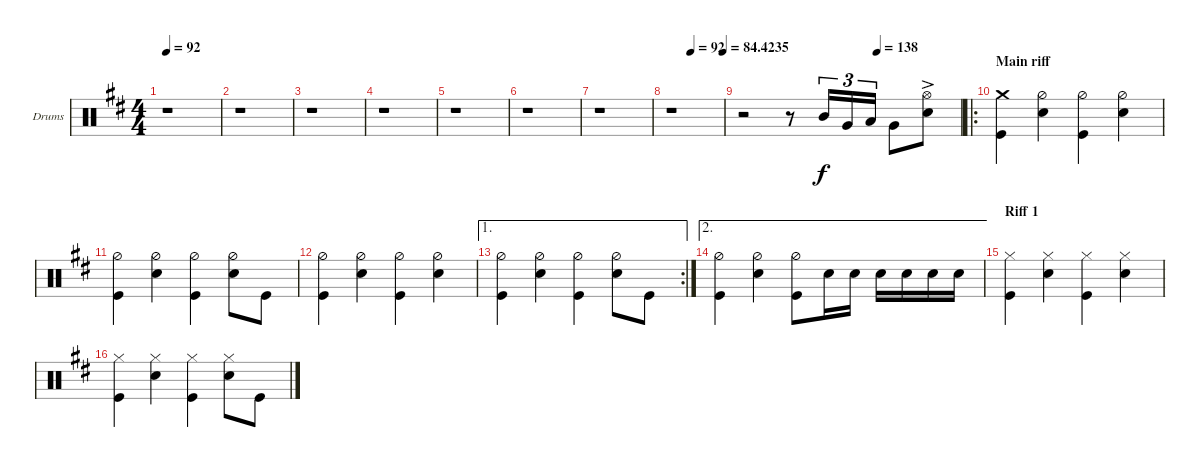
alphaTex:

\defaultSystemsLayout 4
\bracketExtendMode groupsimilarinstruments
\firstSystemTrackNameOrientation horizontal
\otherSystemsTrackNameOrientation horizontal
\track ("Drumkit" "Drums") {instrument percussion}
\staff {score}
\articulation defaults
\ts (4 4)
\tempo 92
\clef neutral
\ks d
r.1{dy f} |
r.1 |
r.1 |
r.1 |
r.1 |
r.1 |
r.1 |
\tempo (92 0.3875)
\tempo (84.4235 1)
r.1 |
\tempo (138 0.61875)
r.2 r.8 "Mid Tom (hit)".16{tu (3 2)} "Very Low Tom (hit)".16{tu (3 2)} "Low Tom (hit)".16{tu (3 2)} "Very Low Tom (hit)".8 ("Snare (hit) 2"{ac} "Hi-Hat (open)").8 |
\ro
\section ("" "Main riff")
\scale
0.5 ("Kick (hit)" "Crash medium (hit)").4 ("Hi-Hat (half)" "Snare (hit) 2").4 ("Hi-Hat (half)" "Kick (hit)").4 ("Hi-Hat (half)" "Snare (hit) 2").4 |
\scale
0.25 ("Hi-Hat (half)" "Kick (hit)").4 ("Hi-Hat (half)" "Snare (hit) 2").4 ("Hi-Hat (half)" "Kick (hit)").4 ("Hi-Hat (half)" "Snare (hit) 2").8 "Kick (hit)".8 |
\scale
0.25 ("Hi-Hat (half)" "Kick (hit)").4 ("Hi-Hat (half)" "Snare (hit) 2").4 ("Hi-Hat (half)" "Kick (hit)").4 ("Hi-Hat (half)" "Snare (hit) 2").4 |
\ae 1
\rc 2
\scale
0.355932 ("Hi-Hat (half)" "Kick (hit)").4 ("Hi-Hat (half)" "Snare (hit) 2").4 ("Hi-Hat (half)" "Kick (hit)").4 ("Hi-Hat (half)" "Snare (hit) 2").8 "Kick (hit)".8 |
\ae 2
("Hi-Hat (half)" "Kick (hit)").4 ("Hi-Hat (half)" "Snare (hit) 2").4 ("Hi-Hat (half)" "Kick (hit)").8 "Snare (hit) 2".16 "Snare (hit) 2".16 "Snare (hit) 2".16 "Snare (hit) 2".16 "Snare (hit) 2".16 "Snare (hit) 2".16 |
\section ("" "Riff 1")
("Hi-Hat (closed)" "Kick (hit)").4 ("Hi-Hat (closed)" "Snare (hit) 2").4 ("Hi-Hat (closed)" "Kick (hit)").4 ("Hi-Hat (closed)" "Snare (hit) 2").4 |
\scale
0.322034 ("Hi-Hat (closed)" "Kick (hit)").4 ("Hi-Hat (closed)" "Snare (hit) 2").4 ("Hi-Hat (closed)" "Kick (hit)").4 ("Hi-Hat (closed)" "Snare (hit) 2").8 "Kick (hit)".8
